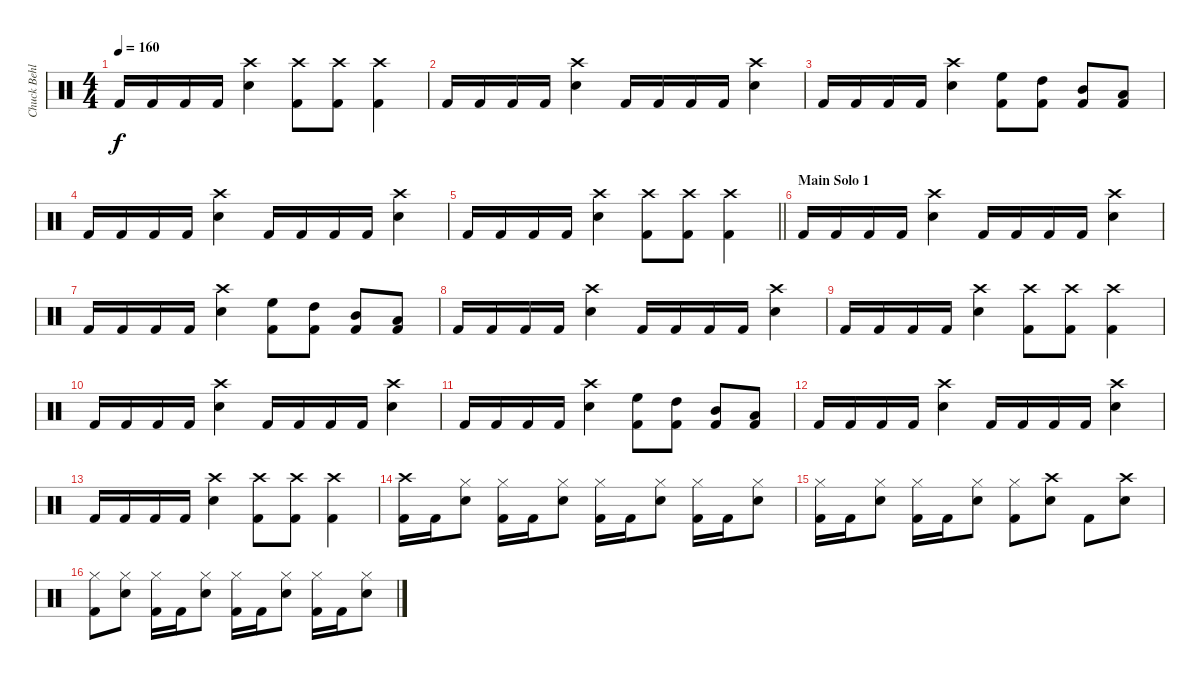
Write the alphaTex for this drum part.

\track ("Chuck Behler" "Chuck Behl") {instrument percussion}
\staff {score}
\articulation defaults
\ts (4 4)
\tempo 160
\clef neutral
\ks c "Kick (hit) 2".16{dy f} "Kick (hit) 2".16 "Kick (hit) 2".16 "Kick (hit) 2".16
("Crash high (hit)" "Snare (hit) 2").4 ("Crash high (hit)" "Kick (hit) 2").8 ("Crash high (hit)" "Kick (hit) 2").8 ("Crash high (hit)" "Kick (hit) 2").4 |
"Kick (hit) 2".16 "Kick (hit) 2".16 "Kick (hit) 2".16 "Kick (hit) 2".16 ("Crash high (hit)" "Snare (hit) 2").4 "Kick (hit) 2".16 "Kick (hit) 2".16 "Kick (hit) 2".16 "Kick (hit) 2".16 ("Crash high (hit)" "Snare (hit) 2").4 |
"Kick (hit) 2".16 "Kick (hit) 2".16 "Kick (hit) 2".16 "Kick (hit) 2".16 ("Crash high (hit)" "Snare (hit) 2").4 ("High Floor Tom (hit)" "Kick (hit) 2").8 ("High Tom (hit)" "Kick (hit) 2").8 ("Mid Tom (hit)" "Kick (hit) 2").8 ("Low Tom (hit)" "Kick (hit) 2").8 |
"Kick (hit) 2".16 "Kick (hit) 2".16 "Kick (hit) 2".16 "Kick (hit) 2".16 ("Crash high (hit)" "Snare (hit) 2").4 "Kick (hit) 2".16 "Kick (hit) 2".16 "Kick (hit) 2".16 "Kick (hit) 2".16 ("Crash high (hit)" "Snare (hit) 2").4 |
\barLineRight lightlight "Kick (hit) 2".16 "Kick (hit) 2".16 "Kick (hit) 2".16 "Kick (hit) 2".16
("Crash high (hit)" "Snare (hit) 2").4 ("Crash high (hit)" "Kick (hit) 2").8 ("Crash high (hit)" "Kick (hit) 2").8 ("Crash high (hit)" "Kick (hit) 2").4 |
\section ("" "Main Solo 1")
"Kick (hit) 2".16 "Kick (hit) 2".16 "Kick (hit) 2".16 "Kick (hit) 2".16 ("Crash high (hit)" "Snare (hit) 2").4 "Kick (hit) 2".16 "Kick (hit) 2".16 "Kick (hit) 2".16 "Kick (hit) 2".16 ("Crash high (hit)" "Snare (hit) 2").4 |
"Kick (hit) 2".16 "Kick (hit) 2".16 "Kick (hit) 2".16 "Kick (hit) 2".16 ("Crash high (hit)" "Snare (hit) 2").4 ("High Floor Tom (hit)" "Kick (hit) 2").8 ("High Tom (hit)" "Kick (hit) 2").8 ("Mid Tom (hit)" "Kick (hit) 2").8 ("Low Tom (hit)" "Kick (hit) 2").8 |
"Kick (hit) 2".16 "Kick (hit) 2".16 "Kick (hit) 2".16 "Kick (hit) 2".16 ("Crash high (hit)" "Snare (hit) 2").4 "Kick (hit) 2".16 "Kick (hit) 2".16 "Kick (hit) 2".16 "Kick (hit) 2".16 ("Crash high (hit)" "Snare (hit) 2").4 |
"Kick (hit) 2".16 "Kick (hit) 2".16 "Kick (hit) 2".16 "Kick (hit) 2".16 ("Crash high (hit)" "Snare (hit) 2").4 ("Crash high (hit)" "Kick (hit) 2").8 ("Crash high (hit)" "Kick (hit) 2").8 ("Crash high (hit)" "Kick (hit) 2").4 |
"Kick (hit) 2".16 "Kick (hit) 2".16 "Kick (hit) 2".16 "Kick (hit) 2".16 ("Crash high (hit)" "Snare (hit) 2").4 "Kick (hit) 2".16 "Kick (hit) 2".16 "Kick (hit) 2".16 "Kick (hit) 2".16 ("Crash high (hit)" "Snare (hit) 2").4 |
"Kick (hit) 2".16 "Kick (hit) 2".16 "Kick (hit) 2".16 "Kick (hit) 2".16 ("Crash high (hit)" "Snare (hit) 2").4 ("High Floor Tom (hit)" "Kick (hit) 2").8 ("High Tom (hit)" "Kick (hit) 2").8 ("Mid Tom (hit)" "Kick (hit) 2").8 ("Low Tom (hit)" "Kick (hit) 2").8 |
"Kick (hit) 2".16 "Kick (hit) 2".16 "Kick (hit) 2".16 "Kick (hit) 2".16 ("Crash high (hit)" "Snare (hit) 2").4 "Kick (hit) 2".16 "Kick (hit) 2".16 "Kick (hit) 2".16 "Kick (hit) 2".16 ("Crash high (hit)" "Snare (hit) 2").4 |
"Kick (hit) 2".16 "Kick (hit) 2".16 "Kick (hit) 2".16 "Kick (hit) 2".16 ("Crash high (hit)" "Snare (hit) 2").4 ("Crash high (hit)" "Kick (hit) 2").8 ("Crash high (hit)" "Kick (hit) 2").8 ("Crash high (hit)" "Kick (hit) 2").4 |
("Crash high (hit)" "Kick (hit) 2").16 "Kick (hit) 2".16 ("Hi-Hat (closed)" "Snare (hit) 2").8 ("Hi-Hat (closed)" "Kick (hit) 2").16 "Kick (hit) 2".16 ("Hi-Hat (closed)" "Snare (hit) 2").8 ("Hi-Hat (closed)" "Kick (hit) 2").16 "Kick (hit) 2".16 ("Hi-Hat (closed)" "Snare (hit) 2").8 ("Hi-Hat (closed)" "Kick (hit) 2").16 "Kick (hit) 2".16 ("Hi-Hat (closed)" "Snare (hit) 2").8 |
("Hi-Hat (closed)" "Kick (hit) 2").16 "Kick (hit) 2".16 ("Hi-Hat (closed)" "Snare (hit) 2").8 ("Hi-Hat (closed)" "Kick (hit) 2").16 "Kick (hit) 2".16 ("Hi-Hat (closed)" "Snare (hit) 2").8 ("Hi-Hat (closed)" "Kick (hit) 2").8 ("Crash high (hit)" "Snare (hit) 2").8 "Kick (hit) 2".8 ("Crash high (hit)" "Snare (hit) 2").8 |
("Hi-Hat (closed)" "Kick (hit) 2").8 ("Hi-Hat (closed)" "Snare (hit) 2").8 ("Hi-Hat (closed)" "Kick (hit) 2").16 "Kick (hit) 2".16 ("Hi-Hat (closed)" "Snare (hit) 2").8 ("Hi-Hat (closed)" "Kick (hit) 2").16 "Kick (hit) 2".16 ("Hi-Hat (closed)" "Snare (hit) 2").8 ("Hi-Hat (closed)" "Kick (hit) 2").16 "Kick (hit) 2".16 ("Hi-Hat (closed)" "Snare (hit) 2").8
